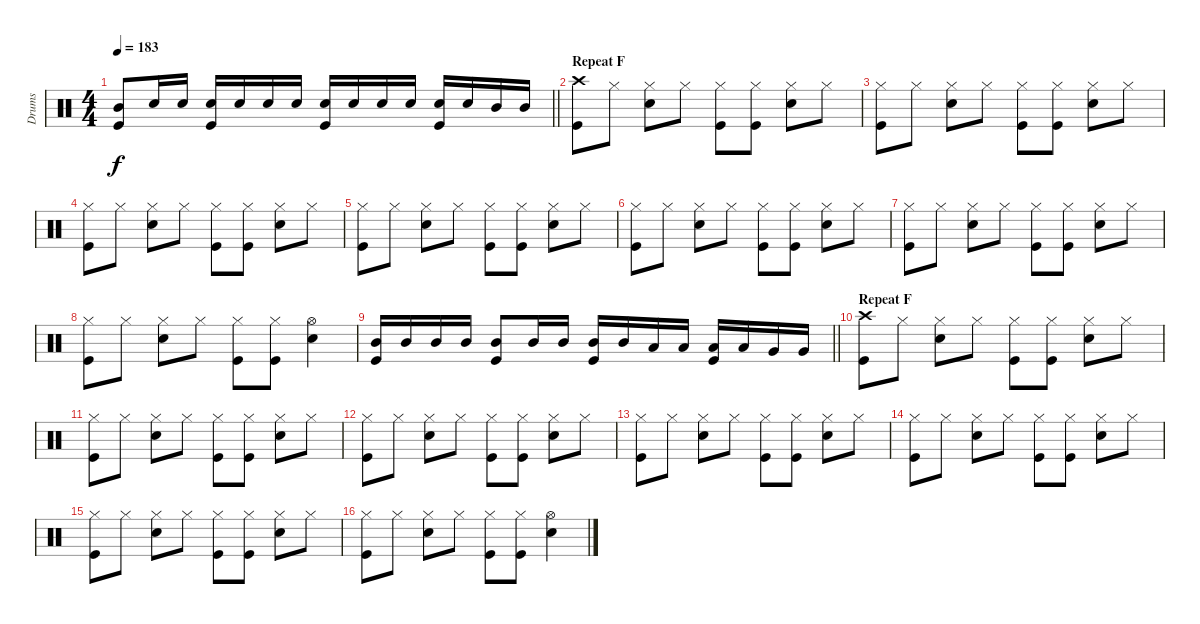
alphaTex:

\track ("Drums" "Drums") {instrument percussion}
\staff {score}
\articulation defaults
\ts (4 4)
\tempo 183
\clef neutral
\barLineRight lightlight
\ks c
("Mid Tom (hit)" "Kick (hit)").8{dy f} "Electric Snare (hit)".16 "Electric Snare (hit)".16 ("Electric Snare (hit)" "Kick (hit)").16 "Electric Snare (hit)".16 "Electric Snare (hit)".16 "Electric Snare (hit)".16 ("Electric Snare (hit)" "Kick (hit)").16 "Electric Snare (hit)".16 "Electric Snare (hit)".16 "Electric Snare (hit)".16 ("Electric Snare (hit)" "Kick (hit)").16 "Electric Snare (hit)".16 "Mid Tom (hit)".16 "Mid Tom (hit)".16 |
\section ("" "Repeat F")
("Crash high (hit)" "Kick (hit)").8 "Hi-Hat (closed)".8 ("Hi-Hat (closed)" "Electric Snare (hit)").8 "Hi-Hat (closed)".8 ("Hi-Hat (closed)" "Kick (hit)").8 ("Hi-Hat (closed)" "Kick (hit)").8 ("Hi-Hat (closed)" "Electric Snare (hit)").8 "Hi-Hat (closed)".8 |
("Hi-Hat (closed)" "Kick (hit)").8 "Hi-Hat (closed)".8 ("Hi-Hat (closed)" "Electric Snare (hit)").8 "Hi-Hat (closed)".8 ("Hi-Hat (closed)" "Kick (hit)").8 ("Hi-Hat (closed)" "Kick (hit)").8 ("Hi-Hat (closed)" "Electric Snare (hit)").8 "Hi-Hat (closed)".8 |
("Hi-Hat (closed)" "Kick (hit)").8 "Hi-Hat (closed)".8 ("Hi-Hat (closed)" "Electric Snare (hit)").8 "Hi-Hat (closed)".8 ("Hi-Hat (closed)" "Kick (hit)").8 ("Hi-Hat (closed)" "Kick (hit)").8 ("Hi-Hat (closed)" "Electric Snare (hit)").8 "Hi-Hat (closed)".8 |
("Hi-Hat (closed)" "Kick (hit)").8 "Hi-Hat (closed)".8 ("Hi-Hat (closed)" "Electric Snare (hit)").8 "Hi-Hat (closed)".8 ("Hi-Hat (closed)" "Kick (hit)").8 ("Hi-Hat (closed)" "Kick (hit)").8 ("Hi-Hat (closed)" "Electric Snare (hit)").8 "Hi-Hat (closed)".8 |
("Hi-Hat (closed)" "Kick (hit)").8 "Hi-Hat (closed)".8 ("Hi-Hat (closed)" "Electric Snare (hit)").8 "Hi-Hat (closed)".8 ("Hi-Hat (closed)" "Kick (hit)").8 ("Hi-Hat (closed)" "Kick (hit)").8 ("Hi-Hat (closed)" "Electric Snare (hit)").8 "Hi-Hat (closed)".8 |
("Hi-Hat (closed)" "Kick (hit)").8 "Hi-Hat (closed)".8 ("Hi-Hat (closed)" "Electric Snare (hit)").8 "Hi-Hat (closed)".8 ("Hi-Hat (closed)" "Kick (hit)").8 ("Hi-Hat (closed)" "Kick (hit)").8 ("Hi-Hat (closed)" "Electric Snare (hit)").8 "Hi-Hat (closed)".8 |
("Hi-Hat (closed)" "Kick (hit)").8 "Hi-Hat (closed)".8 ("Hi-Hat (closed)" "Electric Snare (hit)").8 "Hi-Hat (closed)".8 ("Hi-Hat (closed)" "Kick (hit)").8 ("Hi-Hat (closed)" "Kick (hit)").8 ("Hi-Hat (open)" "Electric Snare (hit)").4 |
\barLineRight lightlight
("Mid Tom (hit)" "Kick (hit)").16 "Mid Tom (hit)".16 "Mid Tom (hit)".16 "Mid Tom (hit)".16 ("Mid Tom (hit)" "Kick (hit)").8 "Mid Tom (hit)".16 "Mid Tom (hit)".16 ("Mid Tom (hit)" "Kick (hit)").16 "Mid Tom (hit)".16 "Low Tom (hit)".16 "Low Tom (hit)".16 ("Low Tom (hit)" "Kick (hit)").16 "Low Tom (hit)".16 "Very Low Tom (hit)".16 "Very Low Tom (hit)".16 |
\section ("" "Repeat F")
("Crash high (hit)" "Kick (hit)").8 "Hi-Hat (closed)".8 ("Hi-Hat (closed)" "Electric Snare (hit)").8 "Hi-Hat (closed)".8 ("Hi-Hat (closed)" "Kick (hit)").8 ("Hi-Hat (closed)" "Kick (hit)").8 ("Hi-Hat (closed)" "Electric Snare (hit)").8 "Hi-Hat (closed)".8 |
("Hi-Hat (closed)" "Kick (hit)").8 "Hi-Hat (closed)".8 ("Hi-Hat (closed)" "Electric Snare (hit)").8 "Hi-Hat (closed)".8 ("Hi-Hat (closed)" "Kick (hit)").8 ("Hi-Hat (closed)" "Kick (hit)").8 ("Hi-Hat (closed)" "Electric Snare (hit)").8 "Hi-Hat (closed)".8 |
("Hi-Hat (closed)" "Kick (hit)").8 "Hi-Hat (closed)".8 ("Hi-Hat (closed)" "Electric Snare (hit)").8 "Hi-Hat (closed)".8 ("Hi-Hat (closed)" "Kick (hit)").8 ("Hi-Hat (closed)" "Kick (hit)").8 ("Hi-Hat (closed)" "Electric Snare (hit)").8 "Hi-Hat (closed)".8 |
("Hi-Hat (closed)" "Kick (hit)").8 "Hi-Hat (closed)".8 ("Hi-Hat (closed)" "Electric Snare (hit)").8 "Hi-Hat (closed)".8 ("Hi-Hat (closed)" "Kick (hit)").8 ("Hi-Hat (closed)" "Kick (hit)").8 ("Hi-Hat (closed)" "Electric Snare (hit)").8 "Hi-Hat (closed)".8 |
("Hi-Hat (closed)" "Kick (hit)").8 "Hi-Hat (closed)".8 ("Hi-Hat (closed)" "Electric Snare (hit)").8 "Hi-Hat (closed)".8 ("Hi-Hat (closed)" "Kick (hit)").8 ("Hi-Hat (closed)" "Kick (hit)").8 ("Hi-Hat (closed)" "Electric Snare (hit)").8 "Hi-Hat (closed)".8 |
("Hi-Hat (closed)" "Kick (hit)").8 "Hi-Hat (closed)".8 ("Hi-Hat (closed)" "Electric Snare (hit)").8 "Hi-Hat (closed)".8 ("Hi-Hat (closed)" "Kick (hit)").8 ("Hi-Hat (closed)" "Kick (hit)").8 ("Hi-Hat (closed)" "Electric Snare (hit)").8 "Hi-Hat (closed)".8 |
("Hi-Hat (closed)" "Kick (hit)").8 "Hi-Hat (closed)".8 ("Hi-Hat (closed)" "Electric Snare (hit)").8 "Hi-Hat (closed)".8 ("Hi-Hat (closed)" "Kick (hit)").8 ("Hi-Hat (closed)" "Kick (hit)").8 ("Hi-Hat (open)" "Electric Snare (hit)").4
